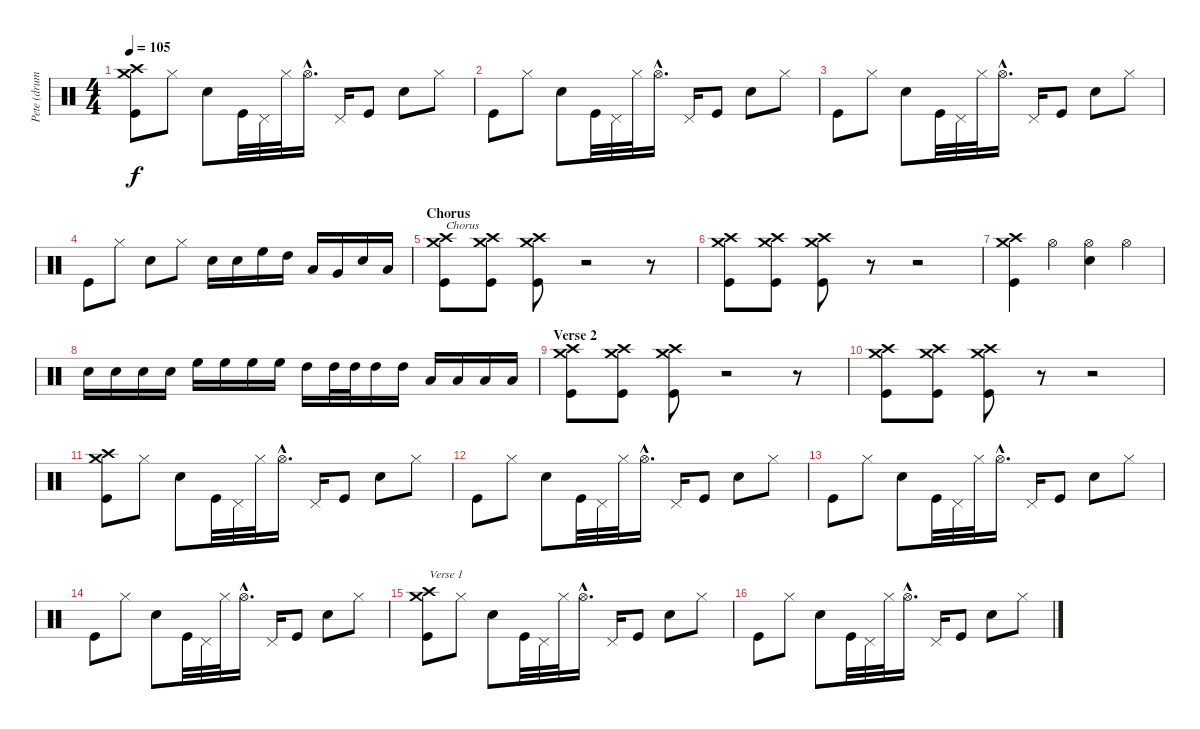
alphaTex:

\track ("Pete (drums)" "Pete (drum") {instrument percussion}
\staff {score}
\articulation defaults
\ts (4 4)
\tempo 105
\clef neutral
\ks c
("Crash medium (hit)" "Crash high (hit)" "Kick (hit)").8{dy f} "Hi-Hat (closed)".8 "Snare (hit) 2".8 "Kick (hit)".32 "Pedal Hi-Hat (hit)".32 "Hi-Hat (closed)".32 "Hi-Hat (open)"{hac}.16{d} "Pedal Hi-Hat (hit)".16 "Kick (hit)".8 "Snare (hit) 2".8 "Hi-Hat (closed)".8 |
"Kick (hit)".8 "Hi-Hat (closed)".8 "Snare (hit) 2".8 "Kick (hit)".32 "Pedal Hi-Hat (hit)".32 "Hi-Hat (closed)".32 "Hi-Hat (open)"{hac}.16{d} "Pedal Hi-Hat (hit)".16 "Kick (hit)".8 "Snare (hit) 2".8 "Hi-Hat (closed)".8 |
"Kick (hit)".8 "Hi-Hat (closed)".8 "Snare (hit) 2".8 "Kick (hit)".32 "Pedal Hi-Hat (hit)".32 "Hi-Hat (closed)".32 "Hi-Hat (open)"{hac}.16{d} "Pedal Hi-Hat (hit)".16 "Kick (hit)".8 "Snare (hit) 2".8 "Hi-Hat (closed)".8 |
"Kick (hit)".8 "Hi-Hat (closed)".8 "Snare (hit) 2".8 "Hi-Hat (closed)".8 "Snare (hit) 2".16 "Snare (hit) 2".16 "High Floor Tom (hit)".16 "High Tom (hit)".16 "Low Tom (hit)".16 "Very Low Tom (hit)".16 "Snare (hit) 2".16 "Low Floor Tom (hit)".16 |
\section ("" "Chorus")
("Crash medium (hit)" "Crash high (hit)" "Kick (hit)").8{txt "Chorus"} ("Crash medium (hit)" "Crash high (hit)" "Kick (hit)").8 ("Crash medium (hit)" "Crash high (hit)" "Kick (hit)").8 r.2 r.8 |
("Crash medium (hit)" "Crash high (hit)" "Kick (hit)").8 ("Crash medium (hit)" "Crash high (hit)" "Kick (hit)").8 ("Crash medium (hit)" "Crash high (hit)" "Kick (hit)").8 r.8 r.2 |
("Crash medium (hit)" "Crash high (hit)" "Kick (hit)").4 "Hi-Hat (open)".4 ("Hi-Hat (open)" "Snare (hit) 2").4 "Hi-Hat (open)".4 |
"Snare (hit) 2".16 "Snare (hit) 2".16 "Snare (hit) 2".16 "Snare (hit) 2".16 "High Floor Tom (hit)".16 "High Floor Tom (hit)".16 "High Floor Tom (hit)".16 "High Floor Tom (hit)".16 "High Tom (hit)".16 "High Tom (hit)".32 "High Tom (hit)".32 "High Tom (hit)".16 "High Tom (hit)".16 "Low Tom (hit)".16 "Low Tom (hit)".16 "Low Tom (hit)".16 "Low Tom (hit)".16 |
\section ("" "Verse 2")
("Crash medium (hit)" "Crash high (hit)" "Kick (hit)").8 ("Crash medium (hit)" "Crash high (hit)" "Kick (hit)").8 ("Crash medium (hit)" "Crash high (hit)" "Kick (hit)").8 r.2 r.8 |
("Crash medium (hit)" "Crash high (hit)" "Kick (hit)").8 ("Crash medium (hit)" "Crash high (hit)" "Kick (hit)").8 ("Crash medium (hit)" "Crash high (hit)" "Kick (hit)").8 r.8 r.2 |
("Crash high (hit)" "Crash medium (hit)" "Kick (hit)").8 "Hi-Hat (closed)".8 "Snare (hit) 2".8 "Kick (hit)".32 "Pedal Hi-Hat (hit)".32 "Hi-Hat (closed)".32 "Hi-Hat (open)"{hac}.16{d} "Pedal Hi-Hat (hit)".16 "Kick (hit)".8 "Snare (hit) 2".8 "Hi-Hat (closed)".8 |
"Kick (hit)".8 "Hi-Hat (closed)".8 "Snare (hit) 2".8 "Kick (hit)".32 "Pedal Hi-Hat (hit)".32 "Hi-Hat (closed)".32 "Hi-Hat (open)"{hac}.16{d} "Pedal Hi-Hat (hit)".16 "Kick (hit)".8 "Snare (hit) 2".8 "Hi-Hat (closed)".8 |
"Kick (hit)".8 "Hi-Hat (closed)".8 "Snare (hit) 2".8 "Kick (hit)".32 "Pedal Hi-Hat (hit)".32 "Hi-Hat (closed)".32 "Hi-Hat (open)"{hac}.16{d} "Pedal Hi-Hat (hit)".16 "Kick (hit)".8 "Snare (hit) 2".8 "Hi-Hat (closed)".8 |
"Kick (hit)".8 "Hi-Hat (closed)".8 "Snare (hit) 2".8 "Kick (hit)".32 "Pedal Hi-Hat (hit)".32 "Hi-Hat (closed)".32 "Hi-Hat (open)"{hac}.16{d} "Pedal Hi-Hat (hit)".16 "Kick (hit)".8 "Snare (hit) 2".8 "Hi-Hat (closed)".8 |
("Crash medium (hit)" "Crash high (hit)" "Kick (hit)").8{txt "Verse 1"} "Hi-Hat (closed)".8 "Snare (hit) 2".8 "Kick (hit)".32 "Pedal Hi-Hat (hit)".32 "Hi-Hat (closed)".32 "Hi-Hat (open)"{hac}.16{d} "Pedal Hi-Hat (hit)".16 "Kick (hit)".8 "Snare (hit) 2".8 "Hi-Hat (closed)".8 |
"Kick (hit)".8 "Hi-Hat (closed)".8 "Snare (hit) 2".8 "Kick (hit)".32 "Pedal Hi-Hat (hit)".32 "Hi-Hat (closed)".32 "Hi-Hat (open)"{hac}.16{d} "Pedal Hi-Hat (hit)".16 "Kick (hit)".8 "Snare (hit) 2".8 "Hi-Hat (closed)".8
